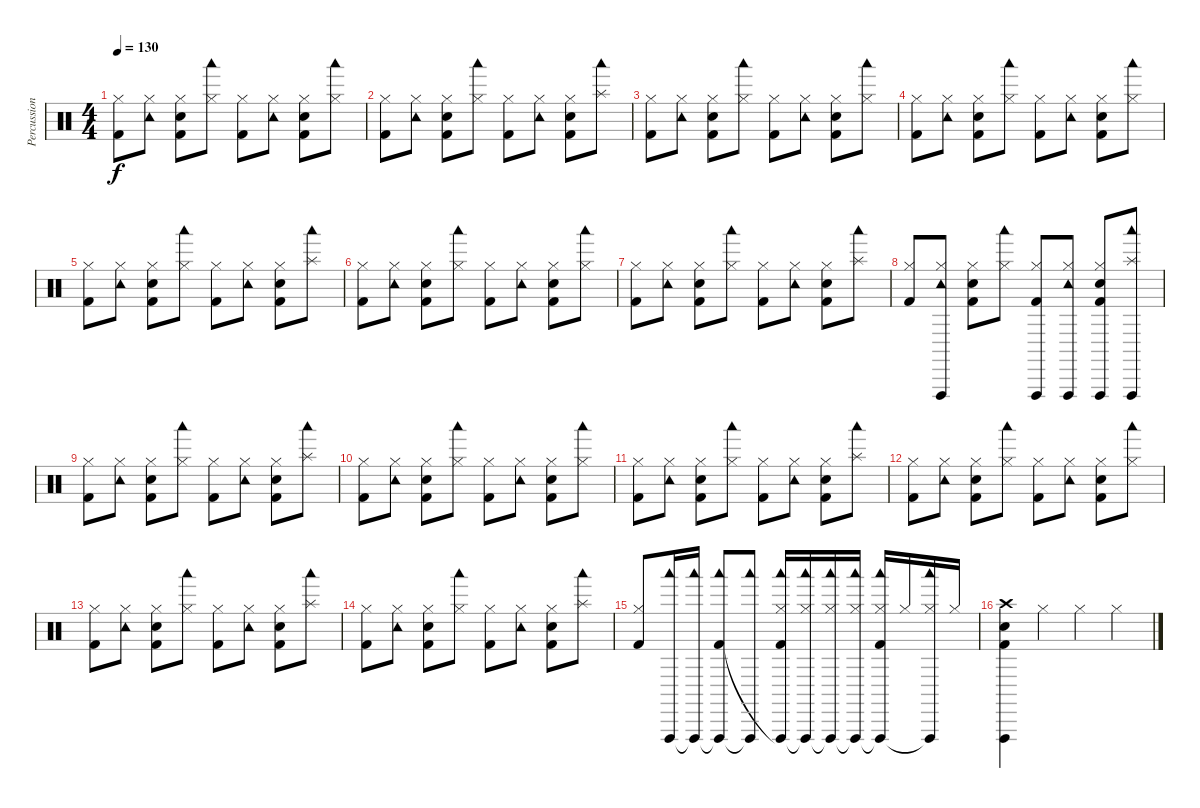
\track ("Percussion" "Percussion") {instrument percussion}
\staff {score}
\articulation defaults
\ts (4 4)
\tempo 130
\clef neutral
\ks c
("Hi-Hat (closed)" "Kick (hit) 2").8{dy f} ("Hi-Hat (closed)" "Tambourine (hit)").8 ("Hi-Hat (closed)" "Electric Snare (hit)" "Kick (hit) 2").8 ("Hi-Hat (closed)" "Woodblock low (hit)").8 ("Hi-Hat (closed)" "Kick (hit) 2").8 ("Hi-Hat (closed)" "Tambourine (hit)").8 ("Hi-Hat (closed)" "Electric Snare (hit)" "Kick (hit) 2").8 ("Hi-Hat (closed)" "Woodblock low (hit)").8 |
("Hi-Hat (closed)" "Kick (hit) 2").8 ("Hi-Hat (closed)" "Tambourine (hit)").8 ("Hi-Hat (closed)" "Electric Snare (hit)" "Kick (hit) 2").8 ("Hi-Hat (closed)" "Woodblock low (hit)").8 ("Hi-Hat (closed)" "Kick (hit) 2").8 ("Hi-Hat (closed)" "Tambourine (hit)").8 ("Hi-Hat (closed)" "Electric Snare (hit)" "Kick (hit) 2").8 ("Splash (hit)" "Woodblock low (hit)").8 |
("Hi-Hat (closed)" "Kick (hit) 2").8 ("Hi-Hat (closed)" "Tambourine (hit)").8 ("Hi-Hat (closed)" "Electric Snare (hit)" "Kick (hit) 2").8 ("Hi-Hat (closed)" "Woodblock low (hit)").8 ("Hi-Hat (closed)" "Kick (hit) 2").8 ("Hi-Hat (closed)" "Tambourine (hit)").8 ("Hi-Hat (closed)" "Electric Snare (hit)" "Kick (hit) 2").8 ("Hi-Hat (closed)" "Woodblock low (hit)").8 |
("Hi-Hat (closed)" "Kick (hit) 2").8 ("Hi-Hat (closed)" "Tambourine (hit)").8 ("Hi-Hat (closed)" "Electric Snare (hit)" "Kick (hit) 2").8 ("Hi-Hat (closed)" "Woodblock low (hit)").8 ("Hi-Hat (closed)" "Kick (hit) 2").8 ("Hi-Hat (closed)" "Tambourine (hit)").8 ("Hi-Hat (closed)" "Electric Snare (hit)" "Kick (hit) 2").8 ("Hi-Hat (closed)" "Woodblock low (hit)").8 |
("Hi-Hat (closed)" "Kick (hit) 2").8 ("Hi-Hat (closed)" "Tambourine (hit)").8 ("Hi-Hat (closed)" "Electric Snare (hit)" "Kick (hit) 2").8 ("Hi-Hat (closed)" "Woodblock low (hit)").8 ("Hi-Hat (closed)" "Kick (hit) 2").8 ("Hi-Hat (closed)" "Tambourine (hit)").8 ("Hi-Hat (closed)" "Electric Snare (hit)" "Kick (hit) 2").8 ("Splash (hit)" "Woodblock low (hit)").8 |
("Hi-Hat (closed)" "Kick (hit) 2").8 ("Hi-Hat (closed)" "Tambourine (hit)").8 ("Hi-Hat (closed)" "Electric Snare (hit)" "Kick (hit) 2").8 ("Hi-Hat (closed)" "Woodblock low (hit)").8 ("Hi-Hat (closed)" "Kick (hit) 2").8 ("Hi-Hat (closed)" "Tambourine (hit)").8 ("Hi-Hat (closed)" "Electric Snare (hit)" "Kick (hit) 2").8 ("Hi-Hat (closed)" "Woodblock low (hit)").8 |
("Hi-Hat (closed)" "Kick (hit) 2").8 ("Hi-Hat (closed)" "Tambourine (hit)").8 ("Hi-Hat (closed)" "Electric Snare (hit)" "Kick (hit) 2").8 ("Hi-Hat (closed)" "Woodblock low (hit)").8 ("Hi-Hat (closed)" "Kick (hit) 2").8 ("Hi-Hat (closed)" "Tambourine (hit)").8 ("Hi-Hat (closed)" "Electric Snare (hit)" "Kick (hit) 2").8 ("Splash (hit)" "Woodblock low (hit)").8 |
("Hi-Hat (closed)" "Kick (hit) 2").8 ("Hi-Hat (closed)" "Tambourine (hit)" "Vibraslap (hit)").8 ("Hi-Hat (closed)" "Electric Snare (hit)" "Kick (hit) 2").8 ("Hi-Hat (closed)" "Woodblock low (hit)").8 ("Hi-Hat (closed)" "Vibraslap (hit)" "Kick (hit) 2").8 ("Hi-Hat (closed)" "Tambourine (hit)" "Vibraslap (hit)").8 ("Hi-Hat (closed)" "Electric Snare (hit)" "Vibraslap (hit)" "Kick (hit) 2").8 ("Splash (hit)" "Woodblock low (hit)" "Vibraslap (hit)").8 |
("Hi-Hat (closed)" "Kick (hit) 2").8 ("Hi-Hat (closed)" "Tambourine (hit)").8 ("Hi-Hat (closed)" "Electric Snare (hit)" "Kick (hit) 2").8 ("Hi-Hat (closed)" "Woodblock low (hit)").8 ("Hi-Hat (closed)" "Kick (hit) 2").8 ("Hi-Hat (closed)" "Tambourine (hit)").8 ("Hi-Hat (closed)" "Electric Snare (hit)" "Kick (hit) 2").8 ("Splash (hit)" "Woodblock low (hit)").8 |
("Hi-Hat (closed)" "Kick (hit) 2").8 ("Hi-Hat (closed)" "Tambourine (hit)").8 ("Hi-Hat (closed)" "Electric Snare (hit)" "Kick (hit) 2").8 ("Hi-Hat (closed)" "Woodblock low (hit)").8 ("Hi-Hat (closed)" "Kick (hit) 2").8 ("Hi-Hat (closed)" "Tambourine (hit)").8 ("Hi-Hat (closed)" "Electric Snare (hit)" "Kick (hit) 2").8 ("Hi-Hat (closed)" "Woodblock low (hit)").8 |
("Hi-Hat (closed)" "Kick (hit) 2").8 ("Hi-Hat (closed)" "Tambourine (hit)").8 ("Hi-Hat (closed)" "Electric Snare (hit)" "Kick (hit) 2").8 ("Hi-Hat (closed)" "Woodblock low (hit)").8 ("Hi-Hat (closed)" "Kick (hit) 2").8 ("Hi-Hat (closed)" "Tambourine (hit)").8 ("Hi-Hat (closed)" "Electric Snare (hit)" "Kick (hit) 2").8 ("Splash (hit)" "Woodblock low (hit)").8 |
("Hi-Hat (closed)" "Kick (hit) 2").8 ("Hi-Hat (closed)" "Tambourine (hit)").8 ("Hi-Hat (closed)" "Electric Snare (hit)" "Kick (hit) 2").8 ("Hi-Hat (closed)" "Woodblock low (hit)").8 ("Hi-Hat (closed)" "Kick (hit) 2").8 ("Hi-Hat (closed)" "Tambourine (hit)").8 ("Hi-Hat (closed)" "Electric Snare (hit)" "Kick (hit) 2").8 ("Hi-Hat (closed)" "Woodblock low (hit)").8 |
("Hi-Hat (closed)" "Kick (hit) 2").8 ("Hi-Hat (closed)" "Tambourine (hit)").8 ("Hi-Hat (closed)" "Electric Snare (hit)" "Kick (hit) 2").8 ("Hi-Hat (closed)" "Woodblock low (hit)").8 ("Hi-Hat (closed)" "Kick (hit) 2").8 ("Hi-Hat (closed)" "Tambourine (hit)").8 ("Hi-Hat (closed)" "Electric Snare (hit)" "Kick (hit) 2").8 ("Splash (hit)" "Woodblock low (hit)").8 |
("Hi-Hat (closed)" "Kick (hit) 2").8 ("Hi-Hat (closed)" "Tambourine (hit)").8 ("Hi-Hat (closed)" "Electric Snare (hit)" "Kick (hit) 2").8 ("Hi-Hat (closed)" "Woodblock low (hit)").8 ("Hi-Hat (closed)" "Kick (hit) 2").8 ("Hi-Hat (closed)" "Tambourine (hit)").8 ("Hi-Hat (closed)" "Electric Snare (hit)" "Kick (hit) 2").8 ("Splash (hit)" "Woodblock low (hit)").8 |
("Hi-Hat (closed)" "Kick (hit) 2").8 ("Woodblock low (hit)" "Vibraslap (hit)").16 ("Woodblock low (hit)" "Vibraslap (hit)"{t}).16 ("Woodblock low (hit)" "Vibraslap (hit)"{t} "Kick (hit) 2").8 ("Woodblock low (hit)" "Vibraslap (hit)"{t}).8 ("Hi-Hat (closed)" "Woodblock low (hit)" "Vibraslap (hit)"{t} "Kick (hit) 2").16 ("Hi-Hat (closed)" "Woodblock low (hit)" "Vibraslap (hit)"{t}).16 ("Hi-Hat (closed)" "Woodblock low (hit)" "Vibraslap (hit)"{t}).16 ("Hi-Hat (closed)" "Woodblock low (hit)" "Vibraslap (hit)"{t}).16 ("Hi-Hat (closed)" "Woodblock low (hit)" "Vibraslap (hit)"{t} "Kick (hit) 2").16 "Hi-Hat (closed)".16 ("Hi-Hat (closed)" "Woodblock low (hit)" "Vibraslap (hit)"{t}).16 "Hi-Hat (closed)".16 |
("Crash high (hit)" "Vibraslap (hit)" "Electric Snare (hit)" "Kick (hit) 2").4 "Hi-Hat (closed)".4 "Hi-Hat (closed)".4 "Hi-Hat (closed)".4
